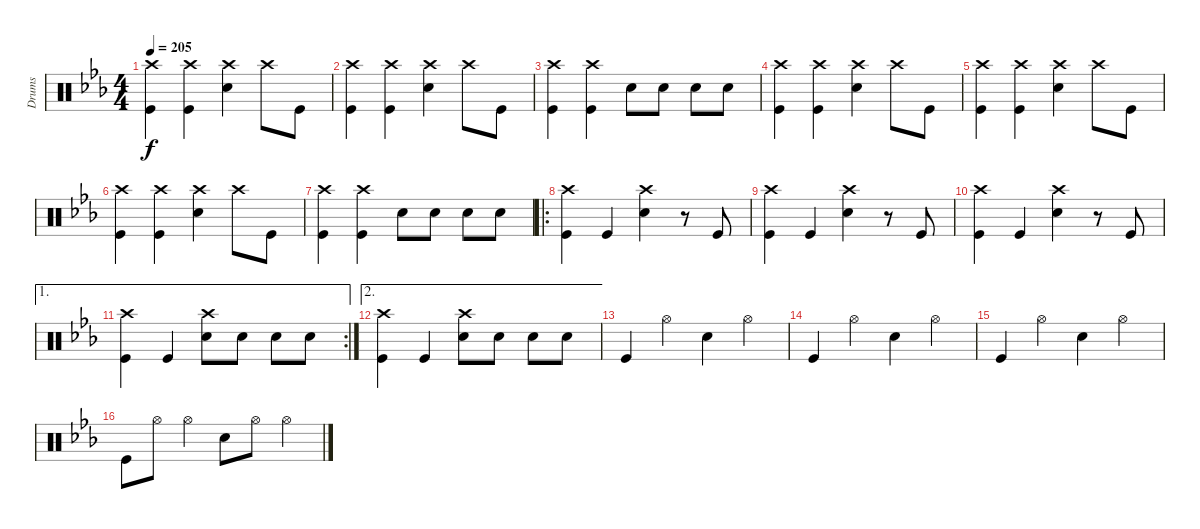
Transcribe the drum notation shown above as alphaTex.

\track ("Drums" "Drums") {instrument percussion}
\staff {score}
\articulation defaults
\ts (4 4)
\tempo 205
\clef neutral
\ks eb
("Crash high (hit)" "Kick (hit)").4{dy f} ("Crash high (hit)" "Kick (hit)").4 ("Crash high (hit)" "Snare (hit) 2").4 "Crash high (hit)".8 "Kick (hit)".8 |
("Crash high (hit)" "Kick (hit)").4 ("Crash high (hit)" "Kick (hit)").4 ("Crash high (hit)" "Snare (hit) 2").4 "Crash high (hit)".8 "Kick (hit)".8 |
("Crash high (hit)" "Kick (hit)").4 ("Crash high (hit)" "Kick (hit)").4 "Snare (hit) 2".8 "Snare (hit) 2".8 "Snare (hit) 2".8 "Snare (hit) 2".8 |
("Crash high (hit)" "Kick (hit)").4 ("Crash high (hit)" "Kick (hit)").4 ("Crash high (hit)" "Snare (hit) 2").4 "Crash high (hit)".8 "Kick (hit)".8 |
("Crash high (hit)" "Kick (hit)").4 ("Crash high (hit)" "Kick (hit)").4 ("Crash high (hit)" "Snare (hit) 2").4 "Crash high (hit)".8 "Kick (hit)".8 |
("Crash high (hit)" "Kick (hit)").4 ("Crash high (hit)" "Kick (hit)").4 ("Crash high (hit)" "Snare (hit) 2").4 "Crash high (hit)".8 "Kick (hit)".8 |
("Crash high (hit)" "Kick (hit)").4 ("Crash high (hit)" "Kick (hit)").4 "Snare (hit) 2".8 "Snare (hit) 2".8 "Snare (hit) 2".8 "Snare (hit) 2".8 |
\ro
("Crash high (hit)" "Kick (hit)").4 "Kick (hit)".4 ("Crash high (hit)" "Snare (hit) 2").4 r.8 "Kick (hit)".8 |
("Crash high (hit)" "Kick (hit)").4 "Kick (hit)".4 ("Crash high (hit)" "Snare (hit) 2").4 r.8 "Kick (hit)".8 |
("Crash high (hit)" "Kick (hit)").4 "Kick (hit)".4 ("Crash high (hit)" "Snare (hit) 2").4 r.8 "Kick (hit)".8 |
\ae 1
\rc 2
("Crash high (hit)" "Kick (hit)").4 "Kick (hit)".4 ("Crash high (hit)" "Snare (hit) 2").8 "Snare (hit) 2".8 "Snare (hit) 2".8 "Snare (hit) 2".8 |
\ae 2
("Crash high (hit)" "Kick (hit)").4 "Kick (hit)".4 ("Crash high (hit)" "Snare (hit) 2").8 "Snare (hit) 2".8 "Snare (hit) 2".8 "Snare (hit) 2".8 |
"Kick (hit)".4 "Hi-Hat (open)".4 "Snare (hit) 2".4 "Hi-Hat (open)".4 |
"Kick (hit)".4 "Hi-Hat (open)".4 "Snare (hit) 2".4 "Hi-Hat (open)".4 |
"Kick (hit)".4 "Hi-Hat (open)".4 "Snare (hit) 2".4 "Hi-Hat (open)".4 |
"Kick (hit)".8 "Hi-Hat (open)".8 "Hi-Hat (open)".4 "Snare (hit) 2".8 "Hi-Hat (open)".8 "Hi-Hat (open)".4
